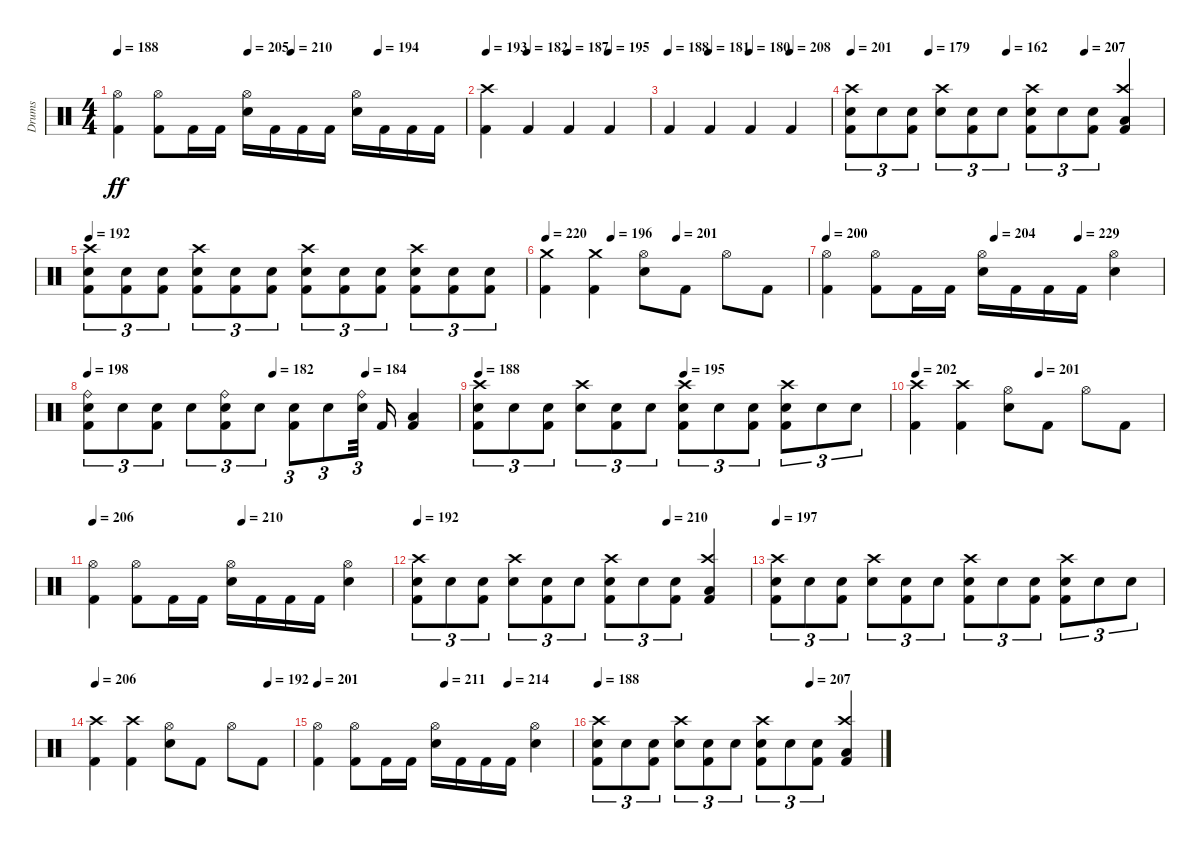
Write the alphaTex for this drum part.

\track ("Drums" "Drums") {instrument percussion}
\staff {score}
\articulation defaults
\ts (4 4)
\tempo 188
\tempo (205 0.375)
\tempo (210 0.5)
\tempo (194 0.75)
\clef neutral
\ks c
("Kick (hit) 2" "Hi-Hat (open)").4{dy ff} ("Kick (hit) 2" "Hi-Hat (open)").8 "Kick (hit) 2".16 "Kick (hit) 2".16 ("Snare (hit) 2" "Hi-Hat (open)").16 "Kick (hit) 2".16 "Kick (hit) 2".16 "Kick (hit) 2".16 ("Snare (hit) 2" "Hi-Hat (open)").16 "Kick (hit) 2".16 "Kick (hit) 2".16 "Kick (hit) 2".16 |
\tempo 193
\tempo (182 0.25)
\tempo (187 0.5)
\tempo (195 0.75)
("Kick (hit) 2" "Crash high (hit)").4 "Kick (hit) 2".4 "Kick (hit) 2".4 "Kick (hit) 2".4 |
\tempo 188
\tempo (181 0.25)
\tempo (180 0.5)
\tempo (208 0.75)
"Kick (hit) 2".4 "Kick (hit) 2".4 "Kick (hit) 2".4 "Kick (hit) 2".4 |
\tempo 201
\tempo (179 0.25)
\tempo (162 0.5)
\tempo (207 0.75)
("Kick (hit) 2" "Snare (hit) 2" "Crash high (hit)").8{tu (3 2)} "Snare (hit) 2".8{tu (3 2)} ("Kick (hit) 2" "Snare (hit) 2").8{tu (3 2)} ("Snare (hit) 2" "Crash high (hit)").8{tu (3 2)} ("Kick (hit) 2" "Snare (hit) 2").8{tu (3 2)} "Snare (hit) 2".8{tu (3 2)} ("Kick (hit) 2" "Snare (hit) 2" "Crash high (hit)").8{tu (3 2)} "Snare (hit) 2".8{tu (3 2)} ("Kick (hit) 2" "Snare (hit) 2").8{tu (3 2)} ("Kick (hit) 2" "Low Floor Tom (hit)" "Crash high (hit)").4 |
\tempo 192
("Kick (hit) 2" "Snare (hit) 2" "Crash high (hit)").8{tu (3 2)} ("Kick (hit) 2" "Snare (hit) 2").8{tu (3 2)} ("Kick (hit) 2" "Snare (hit) 2").8{tu (3 2)} ("Kick (hit) 2" "Snare (hit) 2" "Crash high (hit)").8{tu (3 2)} ("Kick (hit) 2" "Snare (hit) 2").8{tu (3 2)} ("Kick (hit) 2" "Snare (hit) 2").8{tu (3 2)} ("Kick (hit) 2" "Snare (hit) 2" "Crash high (hit)").8{tu (3 2)} ("Kick (hit) 2" "Snare (hit) 2").8{tu (3 2)} ("Kick (hit) 2" "Snare (hit) 2").8{tu (3 2)} ("Kick (hit) 2" "Snare (hit) 2" "Crash high (hit)").8{tu (3 2)} ("Kick (hit) 2" "Snare (hit) 2").8{tu (3 2)} ("Kick (hit) 2" "Snare (hit) 2").8{tu (3 2)} |
\tempo 220
\tempo (196 0.25)
\tempo (201 0.5)
("Kick (hit) 2" "Crash medium (hit)").4 ("Kick (hit) 2" "Crash medium (hit)").4 ("Snare (hit) 2" "Hi-Hat (open)").8 "Kick (hit) 2".8 "Hi-Hat (open)".8 "Kick (hit) 2".8 |
\tempo 200
\tempo (204 0.5)
\tempo (229 0.75)
("Kick (hit) 2" "Hi-Hat (open)").4 ("Kick (hit) 2" "Hi-Hat (open)").8 "Kick (hit) 2".16 "Kick (hit) 2".16 ("Snare (hit) 2" "Hi-Hat (open)").16 "Kick (hit) 2".16 "Kick (hit) 2".16 "Kick (hit) 2".16 ("Snare (hit) 2" "Hi-Hat (open)").4 |
\tempo 198
\tempo (182 0.5)
\tempo (184 0.75)
("Kick (hit) 2" "Snare (hit) 2" "Ride (bell)").8{tu (3 2)} "Snare (hit) 2".8{tu (3 2)} ("Kick (hit) 2" "Snare (hit) 2").8{tu (3 2)} "Snare (hit) 2".8{tu (3 2)} ("Kick (hit) 2" "Snare (hit) 2" "Ride (bell)").8{tu (3 2)} "Snare (hit) 2".8{tu (3 2)} ("Kick (hit) 2" "Snare (hit) 2").8{tu (3 2)} "Snare (hit) 2".8{tu (3 2)} ("Snare (hit) 2" "Ride (bell)").32{tu (3 2) beam splitsecondary} "Kick (hit) 2".16 ("Kick (hit) 2" "Low Floor Tom (hit)").4 |
\tempo 188
\tempo (195 0.5)
("Kick (hit) 2" "Snare (hit) 2" "Crash high (hit)").8{tu (3 2)} "Snare (hit) 2".8{tu (3 2)} ("Kick (hit) 2" "Snare (hit) 2").8{tu (3 2)} ("Snare (hit) 2" "Crash high (hit)").8{tu (3 2)} ("Kick (hit) 2" "Snare (hit) 2").8{tu (3 2)} "Snare (hit) 2".8{tu (3 2)} ("Kick (hit) 2" "Snare (hit) 2" "Crash high (hit)").8{tu (3 2)} "Snare (hit) 2".8{tu (3 2)} ("Kick (hit) 2" "Snare (hit) 2").8{tu (3 2)} ("Kick (hit) 2" "Snare (hit) 2" "Crash high (hit)").8{tu (3 2)} "Snare (hit) 2".8{tu (3 2)} "Snare (hit) 2".8{tu (3 2)} |
\tempo 202
\tempo (201 0.5)
("Kick (hit) 2" "Crash high (hit)").4 ("Kick (hit) 2" "Crash high (hit)").4 ("Snare (hit) 2" "Hi-Hat (open)").8 "Kick (hit) 2".8 "Hi-Hat (open)".8 "Kick (hit) 2".8 |
\tempo 206
\tempo (210 0.5)
("Kick (hit) 2" "Hi-Hat (open)").4 ("Kick (hit) 2" "Hi-Hat (open)").8 "Kick (hit) 2".16 "Kick (hit) 2".16 ("Snare (hit) 2" "Hi-Hat (open)").16 "Kick (hit) 2".16 "Kick (hit) 2".16 "Kick (hit) 2".16 ("Snare (hit) 2" "Hi-Hat (open)").4 |
\tempo 192
\tempo (210 0.75)
("Kick (hit) 2" "Snare (hit) 2" "Crash high (hit)").8{tu (3 2)} "Snare (hit) 2".8{tu (3 2)} ("Kick (hit) 2" "Snare (hit) 2").8{tu (3 2)} ("Snare (hit) 2" "Crash high (hit)").8{tu (3 2)} ("Kick (hit) 2" "Snare (hit) 2").8{tu (3 2)} "Snare (hit) 2".8{tu (3 2)} ("Kick (hit) 2" "Snare (hit) 2" "Crash high (hit)").8{tu (3 2)} "Snare (hit) 2".8{tu (3 2)} ("Kick (hit) 2" "Snare (hit) 2").8{tu (3 2)} ("Kick (hit) 2" "Low Floor Tom (hit)" "Crash high (hit)").4 |
\tempo 197
("Kick (hit) 2" "Snare (hit) 2" "Crash high (hit)").8{tu (3 2)} "Snare (hit) 2".8{tu (3 2)} ("Kick (hit) 2" "Snare (hit) 2").8{tu (3 2)} ("Snare (hit) 2" "Crash high (hit)").8{tu (3 2)} ("Kick (hit) 2" "Snare (hit) 2").8{tu (3 2)} "Snare (hit) 2".8{tu (3 2)} ("Kick (hit) 2" "Snare (hit) 2" "Crash high (hit)").8{tu (3 2)} "Snare (hit) 2".8{tu (3 2)} ("Kick (hit) 2" "Snare (hit) 2").8{tu (3 2)} ("Kick (hit) 2" "Snare (hit) 2" "Crash high (hit)").8{tu (3 2)} "Snare (hit) 2".8{tu (3 2)} "Snare (hit) 2".8{tu (3 2)} |
\tempo 206
\tempo (192 0.875)
("Kick (hit) 2" "Crash high (hit)").4 ("Kick (hit) 2" "Crash high (hit)").4 ("Snare (hit) 2" "Hi-Hat (open)").8 "Kick (hit) 2".8 "Hi-Hat (open)".8 "Kick (hit) 2".8 |
\tempo 201
\tempo (211 0.5)
\tempo (214 0.75)
("Kick (hit) 2" "Hi-Hat (open)").4 ("Kick (hit) 2" "Hi-Hat (open)").8 "Kick (hit) 2".16 "Kick (hit) 2".16 ("Snare (hit) 2" "Hi-Hat (open)").16 "Kick (hit) 2".16 "Kick (hit) 2".16 "Kick (hit) 2".16 ("Snare (hit) 2" "Hi-Hat (open)").4 |
\tempo 188
\tempo (207 0.75)
("Kick (hit) 2" "Snare (hit) 2" "Crash high (hit)").8{tu (3 2)} "Snare (hit) 2".8{tu (3 2)} ("Kick (hit) 2" "Snare (hit) 2").8{tu (3 2)} ("Snare (hit) 2" "Crash high (hit)").8{tu (3 2)} ("Kick (hit) 2" "Snare (hit) 2").8{tu (3 2)} "Snare (hit) 2".8{tu (3 2)} ("Kick (hit) 2" "Snare (hit) 2" "Crash high (hit)").8{tu (3 2)} "Snare (hit) 2".8{tu (3 2)} ("Kick (hit) 2" "Snare (hit) 2").8{tu (3 2)} ("Kick (hit) 2" "Low Floor Tom (hit)" "Crash high (hit)").4
